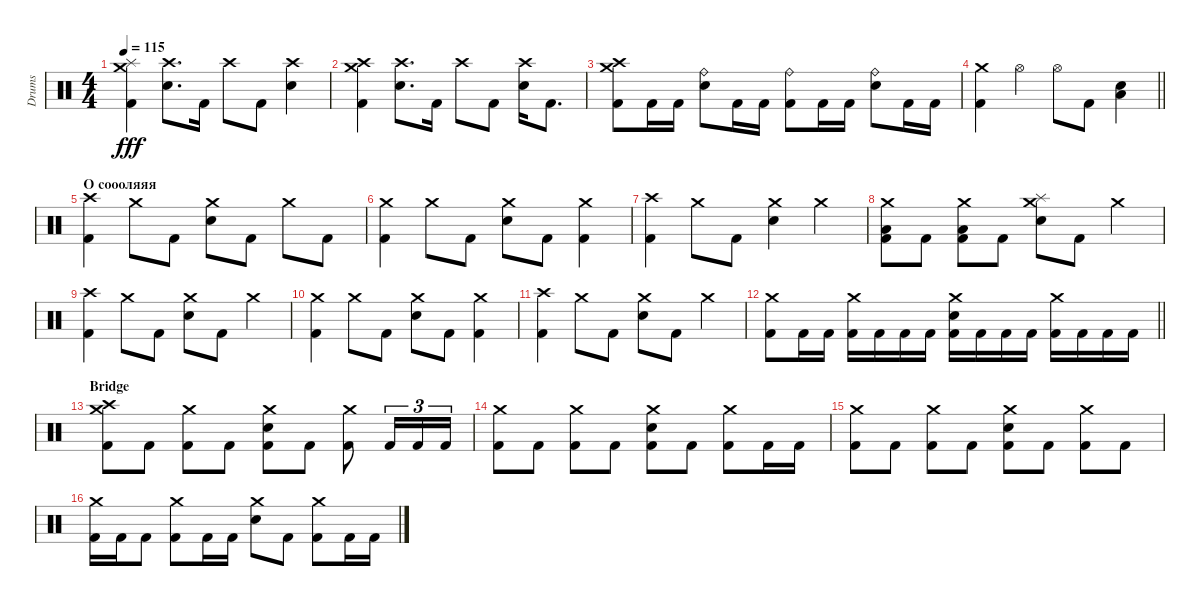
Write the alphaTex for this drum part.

\track ("Drums " "Drums ") {instrument percussion}
\staff {score}
\articulation defaults
\ts (4 4)
\tempo 115
\clef neutral
\ks c
("Crash medium (hit)" "Splash (hit)" "Kick (hit) 2").4{dy fff} ("Crash high (hit)" "Electric Snare (hit)").8{d} "Kick (hit) 2".16 "Crash high (hit)".8 "Kick (hit) 2".8 ("Crash high (hit)" "Electric Snare (hit)").4 |
("Crash medium (hit)" "Crash high (hit)" "Kick (hit) 2").4 ("Crash high (hit)" "Electric Snare (hit)").8{d} "Kick (hit) 2".16 "Crash high (hit)".8 "Kick (hit) 2".8 ("Crash high (hit)" "Electric Snare (hit)").16 "Kick (hit) 2".8{d} |
("Crash medium (hit)" "Crash high (hit)" "Kick (hit) 2").8 "Kick (hit) 2".16 "Kick (hit) 2".16 ("Ride (bell)" "Electric Snare (hit)").8 "Kick (hit) 2".16 "Kick (hit) 2".16 ("Ride (bell)" "Kick (hit) 2").8 "Kick (hit) 2".16 "Kick (hit) 2".16 ("Ride (bell)" "Electric Snare (hit)").8 "Kick (hit) 2".16 "Kick (hit) 2".16 |
\barLineRight lightlight
("Crash medium (hit)" "Kick (hit) 2").4 "Hi-Hat (open)".4 "Hi-Hat (open)".8 "Kick (hit) 2".8 ("Low Floor Tom (hit)" "Electric Snare (hit)").4 |
\section ("" "О соооляяя")
("Crash high (hit)" "Kick (hit) 2").4 "Crash medium (hit)".8 "Kick (hit) 2".8 ("Crash medium (hit)" "Electric Snare (hit)").8 "Kick (hit) 2".8 "Crash medium (hit)".8 "Kick (hit) 2".8 |
("Crash medium (hit)" "Kick (hit) 2").4 "Crash medium (hit)".8 "Kick (hit) 2".8 ("Crash medium (hit)" "Electric Snare (hit)").8 "Kick (hit) 2".8 ("Crash medium (hit)" "Kick (hit) 2").4 |
("Crash high (hit)" "Kick (hit) 2").4 "Crash medium (hit)".8 "Kick (hit) 2".8 ("Crash medium (hit)" "Electric Snare (hit)").4 "Crash medium (hit)".4 |
("Crash medium (hit)" "Low Floor Tom (hit)" "Kick (hit) 2").8 "Kick (hit) 2".8 ("Crash medium (hit)" "Low Floor Tom (hit)" "Kick (hit) 2").8 "Kick (hit) 2".8 ("Splash (hit)" "Crash medium (hit)" "Electric Snare (hit)").8 "Kick (hit) 2".8 "Crash medium (hit)".4 |
("Crash high (hit)" "Kick (hit) 2").4 "Crash medium (hit)".8 "Kick (hit) 2".8 ("Crash medium (hit)" "Electric Snare (hit)").8 "Kick (hit) 2".8 "Crash medium (hit)".4 |
("Crash medium (hit)" "Kick (hit) 2").4 "Crash medium (hit)".8 "Kick (hit) 2".8 ("Crash medium (hit)" "Electric Snare (hit)").8 "Kick (hit) 2".8 ("Crash medium (hit)" "Kick (hit) 2").4 |
("Crash high (hit)" "Kick (hit) 2").4 "Crash medium (hit)".8 "Kick (hit) 2".8 ("Crash medium (hit)" "Electric Snare (hit)").8 "Kick (hit) 2".8 "Crash medium (hit)".4 |
\barLineRight lightlight
("Crash medium (hit)" "Kick (hit) 2").8 "Kick (hit) 2".16 "Kick (hit) 2".16 ("Crash medium (hit)" "Kick (hit) 2").16 "Kick (hit) 2".16 "Kick (hit) 2".16 "Kick (hit) 2".16 ("Crash medium (hit)" "Electric Snare (hit)" "Kick (hit) 2").16 "Kick (hit) 2".16 "Kick (hit) 2".16 "Kick (hit) 2".16 ("Crash medium (hit)" "Kick (hit) 2").16 "Kick (hit) 2".16 "Kick (hit) 2".16 "Kick (hit) 2".16 |
\section ("" "Bridge ")
("Crash medium (hit)" "Crash high (hit)" "Kick (hit) 2").8 "Kick (hit) 2".8 ("Crash medium (hit)" "Kick (hit) 2").8 "Kick (hit) 2".8 ("Crash medium (hit)" "Electric Snare (hit)" "Kick (hit) 2").8 "Kick (hit) 2".8 ("Crash medium (hit)" "Kick (hit) 2").8 "Kick (hit) 2".16{tu (3 2)} "Kick (hit) 2".16{tu (3 2)} "Kick (hit) 2".16{tu (3 2)} |
("Crash medium (hit)" "Kick (hit) 2").8 "Kick (hit) 2".8 ("Crash medium (hit)" "Kick (hit) 2").8 "Kick (hit) 2".8 ("Crash medium (hit)" "Electric Snare (hit)" "Kick (hit) 2").8 "Kick (hit) 2".8 ("Crash medium (hit)" "Kick (hit) 2").8 "Kick (hit) 2".16 "Kick (hit) 2".16 |
("Crash medium (hit)" "Kick (hit) 2").8 "Kick (hit) 2".8 ("Crash medium (hit)" "Kick (hit) 2").8 "Kick (hit) 2".8 ("Crash medium (hit)" "Electric Snare (hit)" "Kick (hit) 2").8 "Kick (hit) 2".8 ("Crash medium (hit)" "Kick (hit) 2").8 "Kick (hit) 2".8 |
("Crash medium (hit)" "Kick (hit) 2").16 "Kick (hit) 2".16 "Kick (hit) 2".8 ("Crash medium (hit)" "Kick (hit) 2").8 "Kick (hit) 2".16 "Kick (hit) 2".16 ("Crash medium (hit)" "Electric Snare (hit)").8 "Kick (hit) 2".8 ("Crash medium (hit)" "Kick (hit) 2").8 "Kick (hit) 2".16 "Kick (hit) 2".16
